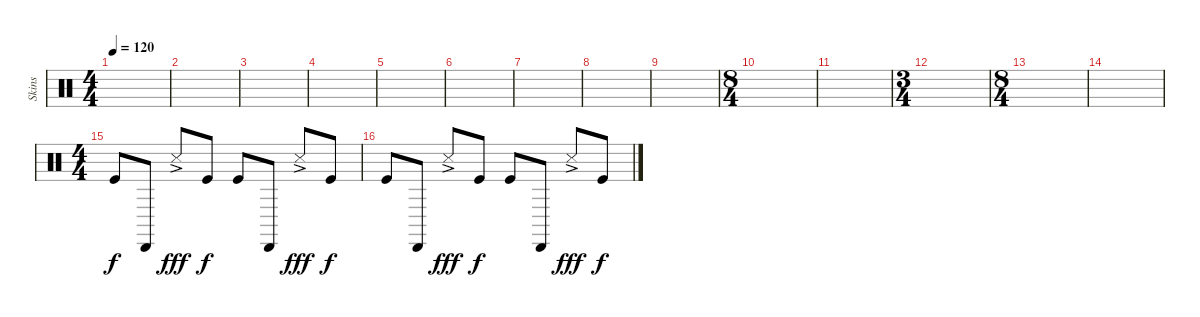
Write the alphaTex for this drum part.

\track ("Skins" "Skins") {instrument percussion}
\staff {score}
\articulation defaults
\ts (4 4)
\tempo 120
\clef neutral
\ks c
|
|
|
|
|
|
|
|
|
\ts (8 4)
|
|
\ts (3 4)
|
\ts (8 4)
|
|
\ts (4 4)
"Kick (hit)".8 "Cabasa (hit)".8 "Snare (side stick) 3"{ac}.8{dy fff} "Kick (hit)".8{dy f} "Kick (hit)".8 "Cabasa (hit)".8 "Snare (side stick) 3"{ac}.8{dy fff} "Kick (hit)".8{dy f} |
"Kick (hit)".8 "Cabasa (hit)".8 "Snare (side stick) 3"{ac}.8{dy fff} "Kick (hit)".8{dy f} "Kick (hit)".8 "Cabasa (hit)".8 "Snare (side stick) 3"{ac}.8{dy fff} "Kick (hit)".8{dy f}
